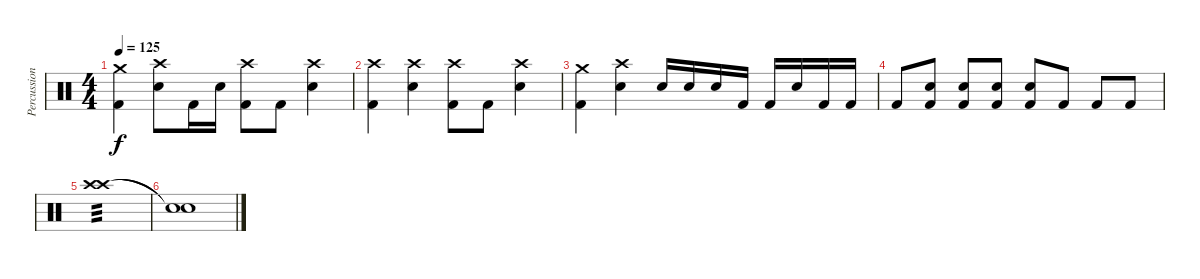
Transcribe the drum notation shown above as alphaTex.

\track ("Percussion" "Percussion") {instrument percussion}
\staff {score}
\articulation defaults
\ts (4 4)
\tempo 125
\clef neutral
\ks c
("Kick (hit) 2" "Crash medium (hit)").4{dy f} ("Electric Snare (hit)" "Crash high (hit)").8 "Kick (hit) 2".16 "Electric Snare (hit)".16 ("Kick (hit) 2" "Crash high (hit)").8 "Kick (hit) 2".8 ("Electric Snare (hit)" "Crash high (hit)").4 |
("Kick (hit) 2" "Crash high (hit)").4 ("Electric Snare (hit)" "Crash high (hit)").4 ("Kick (hit) 2" "Crash high (hit)").8 "Kick (hit) 2".8 ("Electric Snare (hit)" "Crash high (hit)").4 |
("Kick (hit) 2" "Crash medium (hit)").4 ("Electric Snare (hit)" "Crash high (hit)").4 "Electric Snare (hit)".16 "Electric Snare (hit)".16 "Electric Snare (hit)".16 "Kick (hit) 2".16 "Kick (hit) 2".16 "Electric Snare (hit)".16 "Kick (hit) 2".16 "Kick (hit) 2".16 |
"Kick (hit) 2".8 ("Kick (hit) 2" "Electric Snare (hit)").8 ("Kick (hit) 2" "Electric Snare (hit)").8 ("Kick (hit) 2" "Electric Snare (hit)").8 ("Kick (hit) 2" "Electric Snare (hit)").8 "Kick (hit) 2".8 "Kick (hit) 2".8 "Kick (hit) 2".8 |
("Crash high (hit)" "Crash high (hit)").1{tp 3} |
("Snare (hit)"{t} "Snare (hit)"{t}).1
